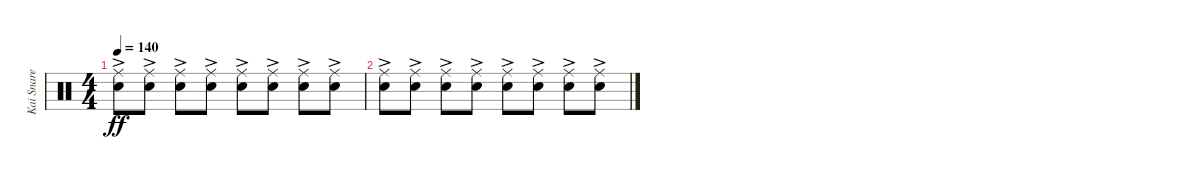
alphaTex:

\track ("Kai Snare" "Kai Snare") {instrument percussion}
\staff {score}
\articulation defaults
\ts (4 4)
\tempo 140
\clef neutral
\ks c
("Ride (middle)"{ac} "Snare (hit) 2").8{dy ff} ("Ride (middle)"{ac} "Snare (hit) 2").8 ("Ride (middle)"{ac} "Snare (hit) 2").8 ("Ride (middle)"{ac} "Snare (hit) 2").8 ("Ride (middle)"{ac} "Snare (hit) 2").8 ("Ride (middle)"{ac} "Snare (hit) 2").8 ("Ride (middle)"{ac} "Snare (hit) 2").8 ("Ride (middle)"{ac} "Snare (hit) 2").8 |
("Ride (middle)"{ac} "Snare (hit) 2").8 ("Ride (middle)"{ac} "Snare (hit) 2").8 ("Ride (middle)"{ac} "Snare (hit) 2").8 ("Ride (middle)"{ac} "Snare (hit) 2").8 ("Ride (middle)"{ac} "Snare (hit) 2").8 ("Ride (middle)"{ac} "Snare (hit) 2").8 ("Ride (middle)"{ac} "Snare (hit) 2").8 ("Ride (middle)"{ac} "Snare (hit) 2").8
